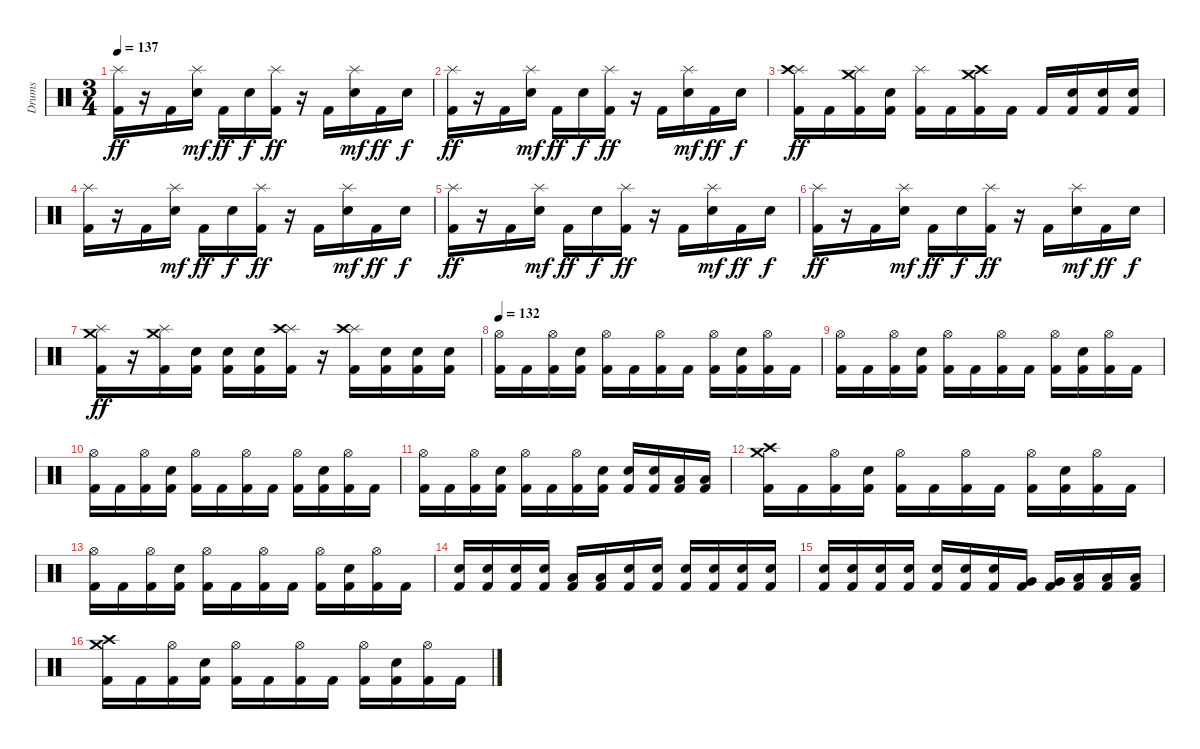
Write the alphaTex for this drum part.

\track ("Drums" "Drums") {instrument percussion}
\staff {score}
\articulation defaults
\ts (3 4)
\tempo 137
\clef neutral
\ks c
("Splash (hit)" "Kick (hit) 2").16{dy ff} r.16 "Kick (hit) 2".16 ("Splash (hit)" "Snare (hit) 2").16{dy mf} "Kick (hit) 2".16{dy ff} "Snare (hit) 2".16{dy f} ("Splash (hit)" "Kick (hit) 2").16{dy ff} r.16 "Kick (hit) 2".16 ("Splash (hit)" "Snare (hit) 2").16{dy mf} "Kick (hit) 2".16{dy ff} "Snare (hit) 2".16{dy f} |
("Splash (hit)" "Kick (hit) 2").16{dy ff} r.16 "Kick (hit) 2".16 ("Splash (hit)" "Snare (hit) 2").16{dy mf} "Kick (hit) 2".16{dy ff} "Snare (hit) 2".16{dy f} ("Splash (hit)" "Kick (hit) 2").16{dy ff} r.16 "Kick (hit) 2".16 ("Splash (hit)" "Snare (hit) 2").16{dy mf} "Kick (hit) 2".16{dy ff} "Snare (hit) 2".16{dy f} |
("Splash (hit)" "Crash high (hit)" "Kick (hit) 2").16{dy ff} "Kick (hit) 2".16 ("Splash (hit)" "Crash medium (hit)" "Kick (hit) 2").16 ("Snare (hit) 2" "Kick (hit) 2").16 ("Splash (hit)" "Kick (hit) 2").16 "Kick (hit) 2".16 ("Crash high (hit)" "Crash medium (hit)" "Kick (hit) 2").16 "Kick (hit) 2".16 "Kick (hit) 2".16 ("Snare (hit) 2" "Kick (hit) 2").16 ("Snare (hit) 2" "Kick (hit) 2").16 ("Snare (hit) 2" "Kick (hit) 2").16 |
("Splash (hit)" "Kick (hit) 2").16 r.16 "Kick (hit) 2".16 ("Splash (hit)" "Snare (hit) 2").16{dy mf} "Kick (hit) 2".16{dy ff} "Snare (hit) 2".16{dy f} ("Splash (hit)" "Kick (hit) 2").16{dy ff} r.16 "Kick (hit) 2".16 ("Splash (hit)" "Snare (hit) 2").16{dy mf} "Kick (hit) 2".16{dy ff} "Snare (hit) 2".16{dy f} |
("Splash (hit)" "Kick (hit) 2").16{dy ff} r.16 "Kick (hit) 2".16 ("Splash (hit)" "Snare (hit) 2").16{dy mf} "Kick (hit) 2".16{dy ff} "Snare (hit) 2".16{dy f} ("Splash (hit)" "Kick (hit) 2").16{dy ff} r.16 "Kick (hit) 2".16 ("Splash (hit)" "Snare (hit) 2").16{dy mf} "Kick (hit) 2".16{dy ff} "Snare (hit) 2".16{dy f} |
("Splash (hit)" "Kick (hit) 2").16{dy ff} r.16 "Kick (hit) 2".16 ("Splash (hit)" "Snare (hit) 2").16{dy mf} "Kick (hit) 2".16{dy ff} "Snare (hit) 2".16{dy f} ("Splash (hit)" "Kick (hit) 2").16{dy ff} r.16 "Kick (hit) 2".16 ("Splash (hit)" "Snare (hit) 2").16{dy mf} "Kick (hit) 2".16{dy ff} "Snare (hit) 2".16{dy f} |
("Splash (hit)" "Crash medium (hit)" "Kick (hit) 2").16{dy ff} r.16 ("Splash (hit)" "Crash medium (hit)" "Kick (hit) 2").16 ("Snare (hit) 2" "Kick (hit) 2").16 ("Snare (hit) 2" "Kick (hit) 2").16 ("Snare (hit) 2" "Kick (hit) 2").16 ("Splash (hit)" "Crash high (hit)" "Kick (hit) 2").16 r.16 ("Splash (hit)" "Crash high (hit)" "Kick (hit) 2").16 ("Snare (hit) 2" "Kick (hit) 2").16 ("Snare (hit) 2" "Kick (hit) 2").16 ("Snare (hit) 2" "Kick (hit) 2").16 |
\tempo 132
("Hi-Hat (open)" "Kick (hit) 2").16 "Kick (hit) 2".16 ("Hi-Hat (open)" "Kick (hit) 2").16 ("Snare (hit) 2" "Kick (hit) 2").16 ("Hi-Hat (open)" "Kick (hit) 2").16 "Kick (hit) 2".16 ("Hi-Hat (open)" "Kick (hit) 2").16 "Kick (hit) 2".16 ("Hi-Hat (open)" "Kick (hit) 2").16 ("Snare (hit) 2" "Kick (hit) 2").16 ("Hi-Hat (open)" "Kick (hit) 2").16 "Kick (hit) 2".16 |
("Hi-Hat (open)" "Kick (hit) 2").16 "Kick (hit) 2".16 ("Hi-Hat (open)" "Kick (hit) 2").16 ("Snare (hit) 2" "Kick (hit) 2").16 ("Hi-Hat (open)" "Kick (hit) 2").16 "Kick (hit) 2".16 ("Hi-Hat (open)" "Kick (hit) 2").16 "Kick (hit) 2".16 ("Hi-Hat (open)" "Kick (hit) 2").16 ("Snare (hit) 2" "Kick (hit) 2").16 ("Hi-Hat (open)" "Kick (hit) 2").16 "Kick (hit) 2".16 |
("Hi-Hat (open)" "Kick (hit) 2").16 "Kick (hit) 2".16 ("Hi-Hat (open)" "Kick (hit) 2").16 ("Snare (hit) 2" "Kick (hit) 2").16 ("Hi-Hat (open)" "Kick (hit) 2").16 "Kick (hit) 2".16 ("Hi-Hat (open)" "Kick (hit) 2").16 "Kick (hit) 2".16 ("Hi-Hat (open)" "Kick (hit) 2").16 ("Snare (hit) 2" "Kick (hit) 2").16 ("Hi-Hat (open)" "Kick (hit) 2").16 "Kick (hit) 2".16 |
("Hi-Hat (open)" "Kick (hit) 2").16 "Kick (hit) 2".16 ("Hi-Hat (open)" "Kick (hit) 2").16 ("Snare (hit) 2" "Kick (hit) 2").16 ("Hi-Hat (open)" "Kick (hit) 2").16 "Kick (hit) 2".16 ("Hi-Hat (open)" "Kick (hit) 2").16 ("Snare (hit) 2" "Kick (hit) 2").16 ("Snare (hit) 2" "Kick (hit) 2").16 ("Snare (hit) 2" "Kick (hit) 2").16 ("Low Tom (hit)" "Kick (hit) 2").16 ("Low Tom (hit)" "Kick (hit) 2").16 |
("Crash medium (hit)" "Crash high (hit)" "Kick (hit) 2").16 "Kick (hit) 2".16 ("Hi-Hat (open)" "Kick (hit) 2").16 ("Snare (hit) 2" "Kick (hit) 2").16 ("Hi-Hat (open)" "Kick (hit) 2").16 "Kick (hit) 2".16 ("Hi-Hat (open)" "Kick (hit) 2").16 "Kick (hit) 2".16 ("Hi-Hat (open)" "Kick (hit) 2").16 ("Snare (hit) 2" "Kick (hit) 2").16 ("Hi-Hat (open)" "Kick (hit) 2").16 "Kick (hit) 2".16 |
("Hi-Hat (open)" "Kick (hit) 2").16 "Kick (hit) 2".16 ("Hi-Hat (open)" "Kick (hit) 2").16 ("Snare (hit) 2" "Kick (hit) 2").16 ("Hi-Hat (open)" "Kick (hit) 2").16 "Kick (hit) 2".16 ("Hi-Hat (open)" "Kick (hit) 2").16 "Kick (hit) 2".16 ("Hi-Hat (open)" "Kick (hit) 2").16 ("Snare (hit) 2" "Kick (hit) 2").16 ("Hi-Hat (open)" "Kick (hit) 2").16 "Kick (hit) 2".16 |
("Snare (hit) 2" "Kick (hit) 2").16 ("Snare (hit) 2" "Kick (hit) 2").16 ("Snare (hit) 2" "Kick (hit) 2").16 ("Snare (hit) 2" "Kick (hit) 2").16 ("Low Tom (hit)" "Kick (hit) 2").16 ("Low Tom (hit)" "Kick (hit) 2").16 ("Snare (hit) 2" "Kick (hit) 2").16 ("Snare (hit) 2" "Kick (hit) 2").16 ("Snare (hit) 2" "Kick (hit) 2").16 ("Snare (hit) 2" "Kick (hit) 2").16 ("Snare (hit) 2" "Kick (hit) 2").16 ("Snare (hit) 2" "Kick (hit) 2").16 |
("Snare (hit) 2" "Kick (hit) 2").16 ("Snare (hit) 2" "Kick (hit) 2").16 ("Snare (hit) 2" "Kick (hit) 2").16 ("Snare (hit) 2" "Kick (hit) 2").16 ("Snare (hit) 2" "Kick (hit) 2").16 ("Snare (hit) 2" "Kick (hit) 2").16 ("Snare (hit) 2" "Kick (hit) 2").16 ("Very Low Tom (hit)" "Kick (hit) 2").16 ("Very Low Tom (hit)" "Kick (hit) 2").16 ("Low Floor Tom (hit)" "Kick (hit) 2").16 ("Low Floor Tom (hit)" "Kick (hit) 2").16 ("Low Floor Tom (hit)" "Kick (hit) 2").16 |
("Crash medium (hit)" "Crash high (hit)" "Kick (hit) 2").16 "Kick (hit) 2".16 ("Hi-Hat (open)" "Kick (hit) 2").16 ("Snare (hit) 2" "Kick (hit) 2").16 ("Hi-Hat (open)" "Kick (hit) 2").16 "Kick (hit) 2".16 ("Hi-Hat (open)" "Kick (hit) 2").16 "Kick (hit) 2".16 ("Hi-Hat (open)" "Kick (hit) 2").16 ("Snare (hit) 2" "Kick (hit) 2").16 ("Hi-Hat (open)" "Kick (hit) 2").16 "Kick (hit) 2".16
